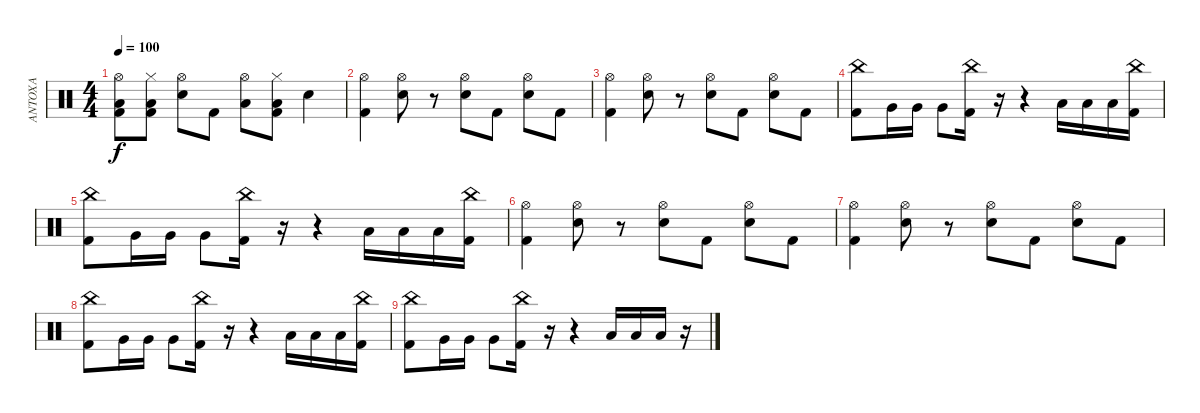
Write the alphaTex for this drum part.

\track ("ANTOXA" "ANTOXA") {instrument percussion}
\staff {score}
\articulation defaults
\ts (4 4)
\tempo 100
\clef neutral
\ks c
("Kick (hit) 2" "Hi-Hat (open)" "Low Floor Tom (hit)").8{dy f} ("Kick (hit) 2" "Hi-Hat (closed)" "Low Floor Tom (hit)").8 ("Hi-Hat (open)" "Electric Snare (hit)").8 "Kick (hit) 2".8 ("Hi-Hat (open)" "Low Floor Tom (hit)").8 ("Kick (hit) 2" "Hi-Hat (closed)" "Low Floor Tom (hit)").8 "Electric Snare (hit)".4 |
("Kick (hit) 2" "Hi-Hat (open)").4 ("Hi-Hat (open)" "Electric Snare (hit)").8 r.8 ("Hi-Hat (open)" "Electric Snare (hit)").8 "Kick (hit) 2".8 ("Hi-Hat (open)" "Electric Snare (hit)").8 "Kick (hit) 2".8 |
("Kick (hit) 2" "Hi-Hat (open)").4 ("Hi-Hat (open)" "Electric Snare (hit)").8 r.8 ("Hi-Hat (open)" "Electric Snare (hit)").8 "Kick (hit) 2".8 ("Hi-Hat (open)" "Electric Snare (hit)").8 "Kick (hit) 2".8 |
("Kick (hit) 2" "China (hit)").8 "Very Low Tom (hit)".16 "Very Low Tom (hit)".16 "Very Low Tom (hit)".8 ("Kick (hit) 2" "China (hit)").16 r.16 r.4 "Low Floor Tom (hit)".16 "Low Floor Tom (hit)".16 "Low Floor Tom (hit)".16 ("Kick (hit) 2" "China (hit)").16 |
("Kick (hit) 2" "China (hit)").8 "Very Low Tom (hit)".16 "Very Low Tom (hit)".16 "Very Low Tom (hit)".8 ("Kick (hit) 2" "China (hit)").16 r.16 r.4 "Low Floor Tom (hit)".16 "Low Floor Tom (hit)".16 "Low Floor Tom (hit)".16 ("Kick (hit) 2" "China (hit)").16 |
("Kick (hit) 2" "Hi-Hat (open)").4 ("Hi-Hat (open)" "Electric Snare (hit)").8 r.8 ("Hi-Hat (open)" "Electric Snare (hit)").8 "Kick (hit) 2".8 ("Hi-Hat (open)" "Electric Snare (hit)").8 "Kick (hit) 2".8 |
("Kick (hit) 2" "Hi-Hat (open)").4 ("Hi-Hat (open)" "Electric Snare (hit)").8 r.8 ("Hi-Hat (open)" "Electric Snare (hit)").8 "Kick (hit) 2".8 ("Hi-Hat (open)" "Electric Snare (hit)").8 "Kick (hit) 2".8 |
("Kick (hit) 2" "China (hit)").8 "Very Low Tom (hit)".16 "Very Low Tom (hit)".16 "Very Low Tom (hit)".8 ("Kick (hit) 2" "China (hit)").16 r.16 r.4 "Low Floor Tom (hit)".16 "Low Floor Tom (hit)".16 "Low Floor Tom (hit)".16 ("Kick (hit) 2" "China (hit)").16 |
("Kick (hit) 2" "China (hit)").8 "Very Low Tom (hit)".16 "Very Low Tom (hit)".16 "Very Low Tom (hit)".8 ("Kick (hit) 2" "China (hit)").16 r.16 r.4 "Low Floor Tom (hit)".16 "Low Floor Tom (hit)".16 "Low Floor Tom (hit)".16 r.16
